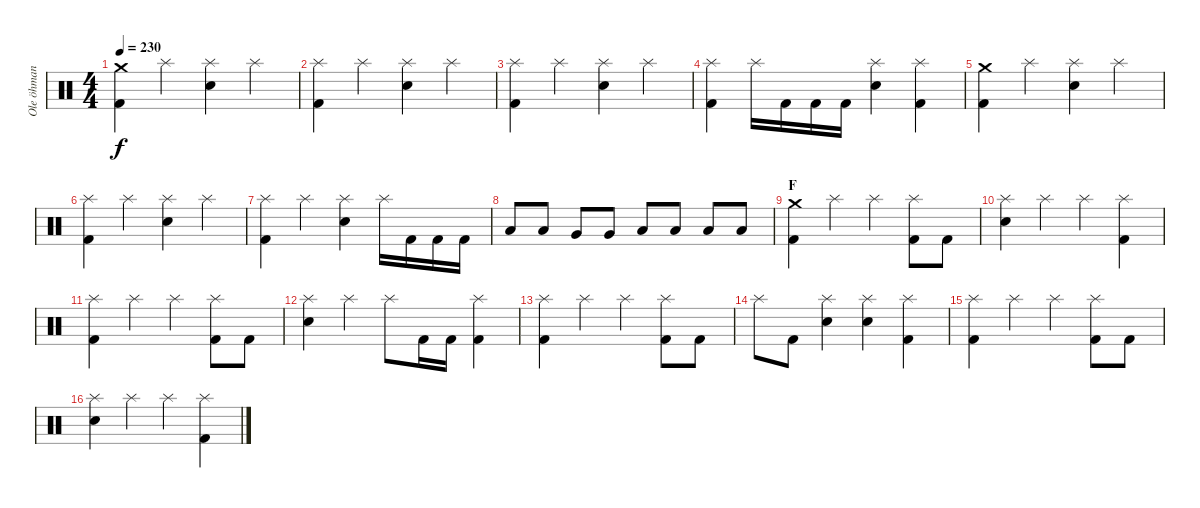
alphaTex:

\track ("Ole öhman" "Ole öhman") {instrument percussion}
\staff {score}
\articulation defaults
\ts (4 4)
\tempo 230
\clef neutral
\ks c
("Crash medium (hit)" "Kick (hit) 2").4{dy f} "Splash (hit)".4 ("Splash (hit)" "Electric Snare (hit)").4 "Splash (hit)".4 |
("Splash (hit)" "Kick (hit) 2").4 "Splash (hit)".4 ("Splash (hit)" "Electric Snare (hit)").4 "Splash (hit)".4 |
("Splash (hit)" "Kick (hit) 2").4 "Splash (hit)".4 ("Splash (hit)" "Electric Snare (hit)").4 "Splash (hit)".4 |
("Splash (hit)" "Kick (hit) 2").4 "Splash (hit)".16 "Kick (hit) 2".16 "Kick (hit) 2".16 "Kick (hit) 2".16 ("Splash (hit)" "Electric Snare (hit)").4 ("Splash (hit)" "Kick (hit) 2").4 |
("Crash medium (hit)" "Kick (hit) 2").4 "Splash (hit)".4 ("Splash (hit)" "Electric Snare (hit)").4 "Splash (hit)".4 |
("Splash (hit)" "Kick (hit) 2").4 "Splash (hit)".4 ("Splash (hit)" "Electric Snare (hit)").4 "Splash (hit)".4 |
("Splash (hit)" "Kick (hit) 2").4 "Splash (hit)".4 ("Splash (hit)" "Electric Snare (hit)").4 "Splash (hit)".16 "Kick (hit) 2".16 "Kick (hit) 2".16 "Kick (hit) 2".16 |
"Low Tom (hit)".8 "Low Tom (hit)".8 "Very Low Tom (hit)".8 "Very Low Tom (hit)".8 "Low Floor Tom (hit)".8 "Low Floor Tom (hit)".8 "Low Floor Tom (hit)".8 "Low Floor Tom (hit)".8 |
\section ("" "F")
("Crash medium (hit)" "Kick (hit) 2").4 "Splash (hit)".4 "Splash (hit)".4 ("Splash (hit)" "Kick (hit) 2").8 "Kick (hit) 2".8 |
("Splash (hit)" "Electric Snare (hit)").4 "Splash (hit)".4 "Splash (hit)".4 ("Splash (hit)" "Kick (hit) 2").4 |
("Splash (hit)" "Kick (hit) 2").4 "Splash (hit)".4 "Splash (hit)".4 ("Splash (hit)" "Kick (hit) 2").8 "Kick (hit) 2".8 |
("Splash (hit)" "Electric Snare (hit)").4 "Splash (hit)".4 "Splash (hit)".8 "Kick (hit) 2".16 "Kick (hit) 2".16 ("Splash (hit)" "Kick (hit) 2").4 |
("Splash (hit)" "Kick (hit) 2").4 "Splash (hit)".4 "Splash (hit)".4 ("Splash (hit)" "Kick (hit) 2").8 "Kick (hit) 2".8 |
"Splash (hit)".8 "Kick (hit) 2".8 ("Splash (hit)" "Electric Snare (hit)").4 ("Splash (hit)" "Electric Snare (hit)").4 ("Splash (hit)" "Kick (hit) 2").4 |
("Splash (hit)" "Kick (hit) 2").4 "Splash (hit)".4 "Splash (hit)".4 ("Splash (hit)" "Kick (hit) 2").8 "Kick (hit) 2".8 |
("Splash (hit)" "Electric Snare (hit)").4 "Splash (hit)".4 "Splash (hit)".4 ("Splash (hit)" "Kick (hit) 2").4
